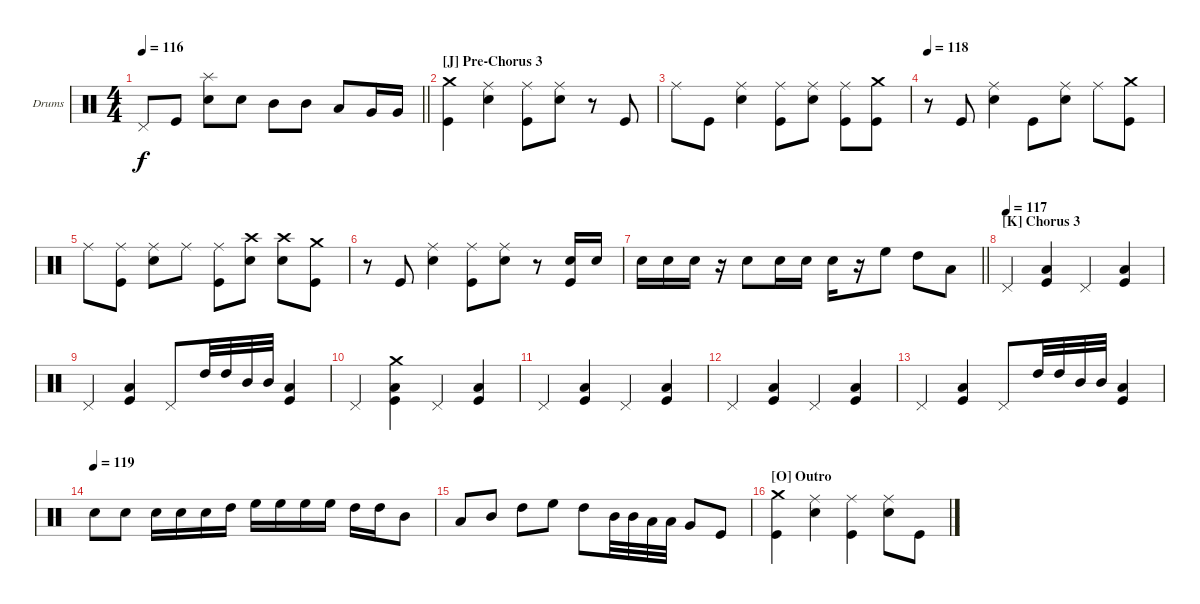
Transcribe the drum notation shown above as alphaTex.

\bracketExtendMode groupsimilarinstruments
\firstSystemTrackNameOrientation horizontal
\otherSystemsTrackNameOrientation horizontal
\track ("Vinny Appice" "Drums") {instrument percussion}
\staff {score}
\articulation defaults
\ts (4 4)
\tempo 116
\clef neutral
\barLineRight lightlight
\ks c "Pedal Hi-Hat (hit)".8{dy f} "Kick (hit)".8
("Splash (hit)" "Snare (hit) 2").8 "Snare (hit) 2".8 "Mid Tom (hit)".8 "Mid Tom (hit)".8 "Low Tom (hit)".8 "Very Low Tom (hit)".16 "Very Low Tom (hit)".16 |
\section ("J" "Pre-Chorus 3")
("Kick (hit)" "Crash medium (hit)").4 ("Ride (middle)" "Snare (hit) 2").4 ("Ride (middle)" "Kick (hit)").8 ("Ride (middle)" "Snare (hit) 2").8 r.8 "Kick (hit)".8 |
"Ride (middle)".8 "Kick (hit)".8 ("Ride (middle)" "Snare (hit) 2").4 ("Ride (middle)" "Kick (hit)").8 ("Ride (middle)" "Snare (hit) 2").8 ("Kick (hit)" "Ride (middle)").8 ("Crash medium (hit)" "Kick (hit)").8 |
\tempo 118
r.8 "Kick (hit)".8 ("Ride (middle)" "Snare (hit) 2").4 "Kick (hit)".8 ("Ride (middle)" "Snare (hit) 2").8 "Ride (middle)".8 ("Kick (hit)" "Crash medium (hit)").8 |
"Ride (middle)".8 ("Ride (middle)" "Kick (hit)").8 ("Ride (middle)" "Snare (hit) 2").8 "Ride (middle)".8 ("Ride (middle)" "Kick (hit)").8 ("Crash high (hit)" "Snare (hit) 2").8 ("Crash high (hit)" "Snare (hit) 2").8 ("Kick (hit)" "Crash medium (hit)").8 |
r.8 "Kick (hit)".8 ("Ride (middle)" "Snare (hit) 2").4 ("Ride (middle)" "Kick (hit)").8 ("Ride (middle)" "Snare (hit) 2").8 r.8 ("Snare (hit) 2" "Kick (hit)").16 "Snare (hit) 2".16 |
\barLineRight lightlight "Snare (hit) 2".16 "Snare (hit) 2".16 "Snare (hit) 2".16
r.16 "Snare (hit) 2".8 "Snare (hit) 2".16 "Snare (hit) 2".16 "Snare (hit) 2".16 r.16 "High Floor Tom (hit)".8 "High Tom (hit)".8 "Low Tom (hit)".8 |
\section ("K" "Chorus 3")
\tempo (117)
"Pedal Hi-Hat (hit)".4 ("Kick (hit)" "Low Tom (hit)").4 "Pedal Hi-Hat (hit)".4 ("Kick (hit)" "Low Tom (hit)").4 |
"Pedal Hi-Hat (hit)".4 ("Kick (hit)" "Low Tom (hit)").4 "Pedal Hi-Hat (hit)".8 "High Tom (hit)".32 "High Tom (hit)".32 "Mid Tom (hit)".32 "Mid Tom (hit)".32 ("Kick (hit)" "Low Tom (hit)").4 |
"Pedal Hi-Hat (hit)".4 ("Crash medium (hit)" "Kick (hit)" "Low Tom (hit)").4 "Pedal Hi-Hat (hit)".4 ("Kick (hit)" "Low Tom (hit)").4 |
"Pedal Hi-Hat (hit)".4 ("Kick (hit)" "Low Tom (hit)").4 "Pedal Hi-Hat (hit)".4 ("Low Tom (hit)" "Kick (hit)").4 |
"Pedal Hi-Hat (hit)".4 ("Kick (hit)" "Low Tom (hit)").4 "Pedal Hi-Hat (hit)".4 ("Kick (hit)" "Low Tom (hit)").4 |
"Pedal Hi-Hat (hit)".4 ("Kick (hit)" "Low Tom (hit)").4 "Pedal Hi-Hat (hit)".8 "High Tom (hit)".32 "High Tom (hit)".32 "Mid Tom (hit)".32 "Mid Tom (hit)".32 ("Kick (hit)" "Low Tom (hit)").4 |
\tempo (119)
"Snare (hit) 2".8 "Snare (hit) 2".8 "Snare (hit) 2".16 "Snare (hit) 2".16 "Snare (hit) 2".16 "High Tom (hit)".16 "High Floor Tom (hit)".16 "High Floor Tom (hit)".16 "High Floor Tom (hit)".16 "High Floor Tom (hit)".16 "High Tom (hit)".16 "High Tom (hit)".16 "Mid Tom (hit)".8 |
"Low Tom (hit)".8 "Mid Tom (hit)".8 "High Tom (hit)".8 "High Floor Tom (hit)".8 "High Tom (hit)".8 "Mid Tom (hit)".32 "Mid Tom (hit)".32 "Low Tom (hit)".32 "Low Tom (hit)".32 "Very Low Tom (hit)".8 "Kick (hit)".8 |
\section ("O" "Outro")
("Crash medium (hit)" "Kick (hit)").4 ("Ride (middle)" "Snare (hit) 2").4 ("Ride (middle)" "Kick (hit)").4 ("Ride (middle)" "Snare (hit) 2").8 "Kick (hit)".8
